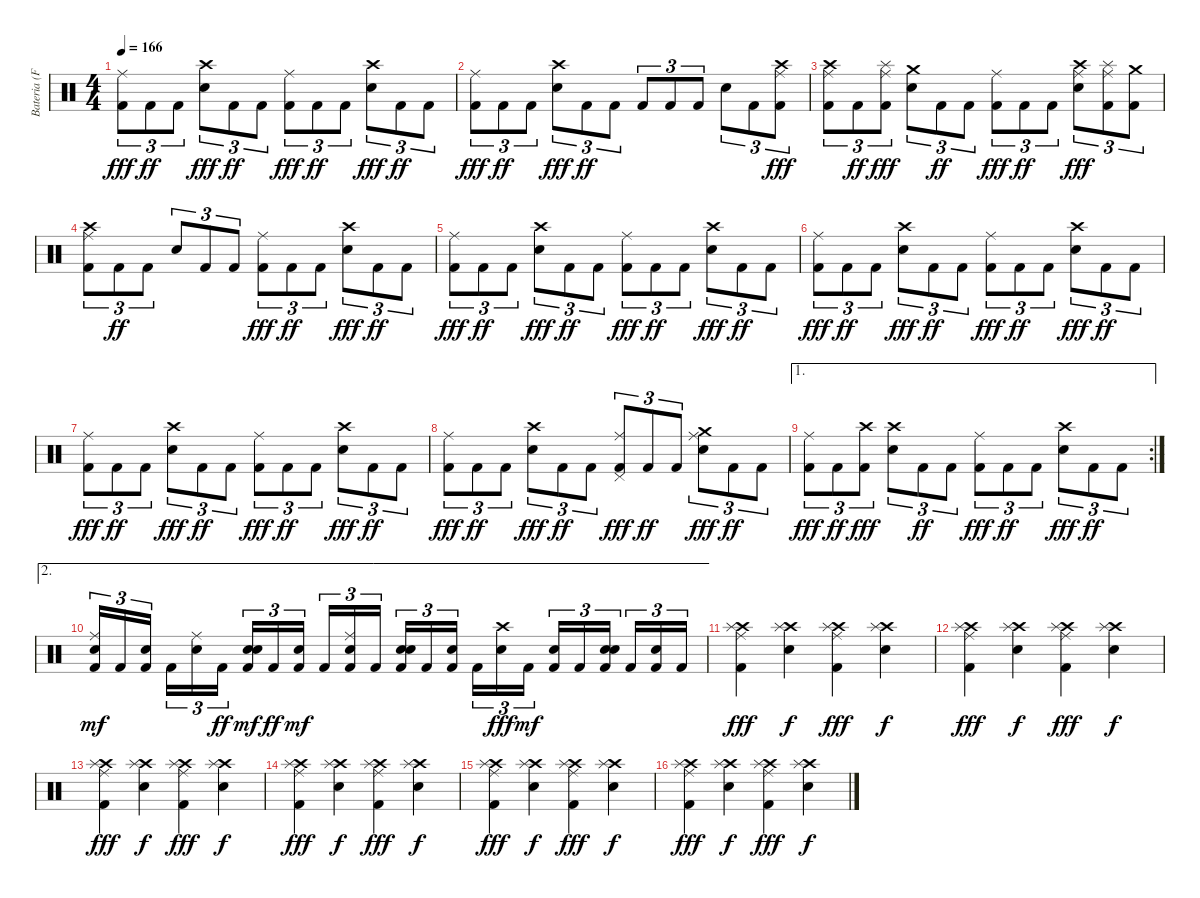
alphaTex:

\track ("Bateria (Fernando Scarcella)" "Bateria (F") {instrument percussion}
\staff {score}
\articulation defaults
\ts (4 4)
\tempo 166
\clef neutral
\ks c
("Kick (hit) 2" "Ride (middle)").8{tu (3 2) dy fff} "Kick (hit) 2".8{tu (3 2) dy ff} "Kick (hit) 2".8{tu (3 2)} ("Electric Snare (hit)" "Crash high (hit)").8{tu (3 2) dy fff} "Kick (hit) 2".8{tu (3 2) dy ff} "Kick (hit) 2".8{tu (3 2)} ("Kick (hit) 2" "Ride (middle)").8{tu (3 2) dy fff} "Kick (hit) 2".8{tu (3 2) dy ff} "Kick (hit) 2".8{tu (3 2)} ("Electric Snare (hit)" "Crash high (hit)").8{tu (3 2) dy fff} "Kick (hit) 2".8{tu (3 2) dy ff} "Kick (hit) 2".8{tu (3 2)} |
("Kick (hit) 2" "Ride (middle)").8{tu (3 2) dy fff} "Kick (hit) 2".8{tu (3 2) dy ff} "Kick (hit) 2".8{tu (3 2)} ("Electric Snare (hit)" "Crash high (hit)").8{tu (3 2) dy fff} "Kick (hit) 2".8{tu (3 2) dy ff} "Kick (hit) 2".8{tu (3 2)} "Kick (hit) 2".8{tu (3 2)} "Kick (hit) 2".8{tu (3 2)} "Kick (hit) 2".8{tu (3 2)} "Electric Snare (hit)".8{tu (3 2)} "Kick (hit) 2".8{tu (3 2)} ("Kick (hit) 2" "Ride (middle)" "Crash high (hit)").8{tu (3 2) dy fff} |
("Kick (hit) 2" "Ride (middle)" "Crash high (hit)").8{tu (3 2)} "Kick (hit) 2".8{tu (3 2) dy ff} ("Kick (hit) 2" "Ride (middle)" "Splash (hit)").8{tu (3 2) dy fff} ("Electric Snare (hit)" "Crash medium (hit)").8{tu (3 2)} "Kick (hit) 2".8{tu (3 2) dy ff} "Kick (hit) 2".8{tu (3 2)} ("Kick (hit) 2" "Ride (middle)").8{tu (3 2) dy fff} "Kick (hit) 2".8{tu (3 2) dy ff} "Kick (hit) 2".8{tu (3 2)} ("Electric Snare (hit)" "Ride (middle)" "Crash high (hit)").8{tu (3 2) dy fff} ("Kick (hit) 2" "Ride (middle)" "Splash (hit)").8{tu (3 2)} ("Kick (hit) 2" "Crash medium (hit)").8{tu (3 2)} |
("Kick (hit) 2" "Ride (middle)" "Crash high (hit)").8{tu (3 2)} "Kick (hit) 2".8{tu (3 2) dy ff} "Kick (hit) 2".8{tu (3 2)} "Electric Snare (hit)".8{tu (3 2)} "Kick (hit) 2".8{tu (3 2)} "Kick (hit) 2".8{tu (3 2)} ("Kick (hit) 2" "Ride (middle)").8{tu (3 2) dy fff} "Kick (hit) 2".8{tu (3 2) dy ff} "Kick (hit) 2".8{tu (3 2)} ("Electric Snare (hit)" "Crash high (hit)").8{tu (3 2) dy fff} "Kick (hit) 2".8{tu (3 2) dy ff} "Kick (hit) 2".8{tu (3 2)} |
("Kick (hit) 2" "Ride (middle)").8{tu (3 2) dy fff} "Kick (hit) 2".8{tu (3 2) dy ff} "Kick (hit) 2".8{tu (3 2)} ("Electric Snare (hit)" "Crash high (hit)").8{tu (3 2) dy fff} "Kick (hit) 2".8{tu (3 2) dy ff} "Kick (hit) 2".8{tu (3 2)} ("Kick (hit) 2" "Ride (middle)").8{tu (3 2) dy fff} "Kick (hit) 2".8{tu (3 2) dy ff} "Kick (hit) 2".8{tu (3 2)} ("Electric Snare (hit)" "Crash high (hit)").8{tu (3 2) dy fff} "Kick (hit) 2".8{tu (3 2) dy ff} "Kick (hit) 2".8{tu (3 2)} |
("Kick (hit) 2" "Ride (middle)").8{tu (3 2) dy fff} "Kick (hit) 2".8{tu (3 2) dy ff} "Kick (hit) 2".8{tu (3 2)} ("Electric Snare (hit)" "Crash high (hit)").8{tu (3 2) dy fff} "Kick (hit) 2".8{tu (3 2) dy ff} "Kick (hit) 2".8{tu (3 2)} ("Kick (hit) 2" "Ride (middle)").8{tu (3 2) dy fff} "Kick (hit) 2".8{tu (3 2) dy ff} "Kick (hit) 2".8{tu (3 2)} ("Electric Snare (hit)" "Crash high (hit)").8{tu (3 2) dy fff} "Kick (hit) 2".8{tu (3 2) dy ff} "Kick (hit) 2".8{tu (3 2)} |
("Kick (hit) 2" "Ride (middle)").8{tu (3 2) dy fff} "Kick (hit) 2".8{tu (3 2) dy ff} "Kick (hit) 2".8{tu (3 2)} ("Electric Snare (hit)" "Crash high (hit)").8{tu (3 2) dy fff} "Kick (hit) 2".8{tu (3 2) dy ff} "Kick (hit) 2".8{tu (3 2)} ("Kick (hit) 2" "Ride (middle)").8{tu (3 2) dy fff} "Kick (hit) 2".8{tu (3 2) dy ff} "Kick (hit) 2".8{tu (3 2)} ("Electric Snare (hit)" "Crash high (hit)").8{tu (3 2) dy fff} "Kick (hit) 2".8{tu (3 2) dy ff} "Kick (hit) 2".8{tu (3 2)} |
("Kick (hit) 2" "Ride (middle)").8{tu (3 2) dy fff} "Kick (hit) 2".8{tu (3 2) dy ff} "Kick (hit) 2".8{tu (3 2)} ("Electric Snare (hit)" "Crash high (hit)").8{tu (3 2) dy fff} "Kick (hit) 2".8{tu (3 2) dy ff} "Kick (hit) 2".8{tu (3 2)} ("Kick (hit) 2" "Ride (middle)" "Pedal Hi-Hat (hit)").8{tu (3 2) dy fff} "Kick (hit) 2".8{tu (3 2) dy ff} "Kick (hit) 2".8{tu (3 2)} ("Electric Snare (hit)" "Crash medium (hit)" "Ride (middle)").8{tu (3 2) dy fff} "Kick (hit) 2".8{tu (3 2) dy ff} "Kick (hit) 2".8{tu (3 2)} |
\ae 1
\rc 2
("Kick (hit) 2" "Ride (middle)").8{tu (3 2) dy fff} "Kick (hit) 2".8{tu (3 2) dy ff} ("Kick (hit) 2" "Crash high (hit)").8{tu (3 2) dy fff} ("Electric Snare (hit)" "Crash high (hit)").8{tu (3 2)} "Kick (hit) 2".8{tu (3 2) dy ff} "Kick (hit) 2".8{tu (3 2)} ("Kick (hit) 2" "Ride (middle)").8{tu (3 2) dy fff} "Kick (hit) 2".8{tu (3 2) dy ff} "Kick (hit) 2".8{tu (3 2)} ("Electric Snare (hit)" "Crash high (hit)").8{tu (3 2) dy fff} "Kick (hit) 2".8{tu (3 2) dy ff} "Kick (hit) 2".8{tu (3 2)} |
\ae 2
("Kick (hit) 2" "Ride (middle)" "Snare (hit) 2").16{tu (3 2) dy mf} "Kick (hit) 2".16{tu (3 2)} ("Kick (hit) 2" "Electric Snare (hit)").16{tu (3 2) beam splitsecondary} "Kick (hit) 2".16{tu (3 2)} ("Ride (middle)" "Electric Snare (hit)").16{tu (3 2)} "Kick (hit) 2".16{tu (3 2) dy ff} ("Kick (hit) 2" "Electric Snare (hit)" "Snare (hit) 2").16{tu (3 2) dy mf} "Kick (hit) 2".16{tu (3 2) dy ff} ("Kick (hit) 2" "Electric Snare (hit)").16{tu (3 2) dy mf beam splitsecondary} "Kick (hit) 2".16{tu (3 2)} ("Kick (hit) 2" "Ride (middle)" "Electric Snare (hit)").16{tu (3 2)} "Kick (hit) 2".16{tu (3 2)} ("Kick (hit) 2" "Electric Snare (hit)" "Snare (hit) 2").16{tu (3 2)} "Kick (hit) 2".16{tu (3 2)} ("Kick (hit) 2" "Electric Snare (hit)").16{tu (3 2) beam splitsecondary} "Kick (hit) 2".16{tu (3 2)} ("Electric Snare (hit)" "Crash high (hit)").16{tu (3 2) dy fff} "Kick (hit) 2".16{tu (3 2) dy mf} ("Kick (hit) 2" "Electric Snare (hit)").16{tu (3 2)} "Kick (hit) 2".16{tu (3 2)} ("Kick (hit) 2" "Electric Snare (hit)" "Snare (hit) 2").16{tu (3 2) beam splitsecondary} "Kick (hit) 2".16{tu (3 2)} ("Kick (hit) 2" "Electric Snare (hit)").16{tu (3 2)} "Kick (hit) 2".16{tu (3 2)} |
("Crash high (hit)" "Splash (hit)" "Kick (hit) 2" "Ride (middle)").4{dy fff} ("Crash high (hit)" "Splash (hit)" "Snare (hit) 2").4{dy f} ("Crash high (hit)" "Splash (hit)" "Kick (hit) 2" "Ride (middle)").4{dy fff} ("Crash high (hit)" "Splash (hit)" "Snare (hit) 2").4{dy f} |
("Crash high (hit)" "Splash (hit)" "Kick (hit) 2" "Ride (middle)").4{dy fff} ("Crash high (hit)" "Splash (hit)" "Snare (hit) 2").4{dy f} ("Crash high (hit)" "Splash (hit)" "Kick (hit) 2" "Ride (middle)").4{dy fff} ("Crash high (hit)" "Splash (hit)" "Snare (hit) 2").4{dy f} |
("Crash high (hit)" "Splash (hit)" "Kick (hit) 2" "Ride (middle)").4{dy fff} ("Crash high (hit)" "Splash (hit)" "Snare (hit) 2").4{dy f} ("Crash high (hit)" "Splash (hit)" "Kick (hit) 2" "Ride (middle)").4{dy fff} ("Crash high (hit)" "Splash (hit)" "Snare (hit) 2").4{dy f} |
("Crash high (hit)" "Splash (hit)" "Kick (hit) 2" "Ride (middle)").4{dy fff} ("Crash high (hit)" "Splash (hit)" "Snare (hit) 2").4{dy f} ("Crash high (hit)" "Splash (hit)" "Kick (hit) 2" "Ride (middle)").4{dy fff} ("Crash high (hit)" "Splash (hit)" "Snare (hit) 2").4{dy f} |
("Crash high (hit)" "Splash (hit)" "Kick (hit) 2" "Ride (middle)").4{dy fff} ("Crash high (hit)" "Splash (hit)" "Snare (hit) 2").4{dy f} ("Crash high (hit)" "Splash (hit)" "Kick (hit) 2" "Ride (middle)").4{dy fff} ("Crash high (hit)" "Splash (hit)" "Snare (hit) 2").4{dy f} |
("Crash high (hit)" "Splash (hit)" "Kick (hit) 2" "Ride (middle)").4{dy fff} ("Crash high (hit)" "Splash (hit)" "Snare (hit) 2").4{dy f} ("Crash high (hit)" "Splash (hit)" "Kick (hit) 2" "Ride (middle)").4{dy fff} ("Crash high (hit)" "Splash (hit)" "Snare (hit) 2").4{dy f}
